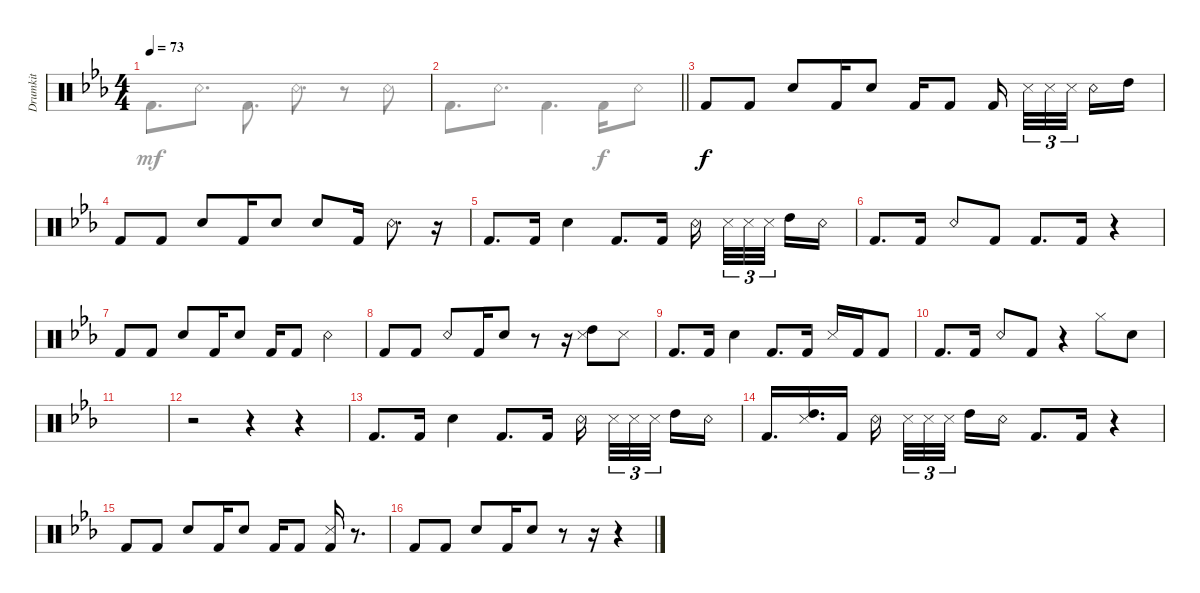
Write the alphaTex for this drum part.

\track ("Drumkit" "Drumkit") {instrument percussion}
\staff {score}
\articulation defaults
\voice
\ts (4 4)
\tempo 73
\clef neutral
\ks cminor
|
\barLineRight lightlight
|
"Kick (hit) 2".8{dy f} "Kick (hit) 2".8 "Snare (hit) 2".8 "Kick (hit) 2".16 "Snare (hit) 2".8 "Kick (hit) 2".16 "Kick (hit) 2".8 "Kick (hit) 2".16 "Snare (side stick) 3".32{tu (3 2)} "Snare (side stick) 3".32{tu (3 2)} "Snare (side stick) 3".32{tu (3 2)} "Snare (rim shot)".16 "High Tom (hit)".16 |
"Kick (hit) 2".8 "Kick (hit) 2".8 "Snare (hit) 2".8 "Kick (hit) 2".16 "Snare (hit) 2".8 "Snare (hit) 2".8 "Kick (hit) 2".16 "Snare (rim shot)".8{d} r.16 |
"Kick (hit) 2".8{d} "Kick (hit) 2".16 "Snare (hit) 2".4 "Kick (hit) 2".8{d} "Kick (hit) 2".16 "Snare (rim shot)".16 "Snare (side stick) 3".32{tu (3 2)} "Snare (side stick) 3".32{tu (3 2)} "Snare (side stick) 3".32{tu (3 2)} "High Tom (hit)".16 "Snare (rim shot)".16 |
"Kick (hit) 2".8{d} "Kick (hit) 2".16 "Snare (rim shot)".8 "Kick (hit) 2".8 "Kick (hit) 2".8{d} "Kick (hit) 2".16 r.4 |
"Kick (hit) 2".8 "Kick (hit) 2".8 "Snare (hit) 2".8 "Kick (hit) 2".16 "Snare (hit) 2".8 "Kick (hit) 2".16 "Kick (hit) 2".8 "Snare (rim shot)".4 |
"Kick (hit) 2".8 "Kick (hit) 2".8 "Snare (rim shot)".8 "Kick (hit) 2".16 "Snare (hit) 2".8 r.8 r.16 ("High Tom (hit)" "Snare (side stick) 3").8 "Snare (side stick) 3".8 |
"Kick (hit) 2".8{d} "Kick (hit) 2".16 "Snare (hit) 2".4 "Kick (hit) 2".8{d} "Kick (hit) 2".16 "Snare (side stick) 3".16 "Kick (hit) 2".16 "Kick (hit) 2".8 |
"Kick (hit) 2".8{d} "Kick (hit) 2".16 "Snare (rim shot)".8 "Kick (hit) 2".8 r.4 "Hi-Hat (closed)".8 "Snare (hit) 2".8 |
|
r.2 r.4 r.4 |
"Kick (hit) 2".8{d} "Kick (hit) 2".16 "Snare (hit) 2".4 "Kick (hit) 2".8{d} "Kick (hit) 2".16 "Snare (rim shot)".16 "Snare (side stick) 3".32{tu (3 2)} "Snare (side stick) 3".32{tu (3 2)} "Snare (side stick) 3".32{tu (3 2)} "High Tom (hit)".16 "Snare (rim shot)".16 |
"Kick (hit) 2".16{d} ("Snare (side stick) 3" "High Tom (hit)").16{d} "Kick (hit) 2".16 "Snare (rim shot)".16 "Snare (side stick) 3".32{tu (3 2)} "Snare (side stick) 3".32{tu (3 2)} "Snare (side stick) 3".32{tu (3 2)} "High Tom (hit)".16 "Snare (rim shot)".16 "Kick (hit) 2".8{d} "Kick (hit) 2".16 r.4 |
"Kick (hit) 2".8 "Kick (hit) 2".8 "Snare (hit) 2".8 "Kick (hit) 2".16 "Snare (hit) 2".8 "Kick (hit) 2".16 "Kick (hit) 2".8 ("Kick (hit) 2" "Snare (side stick) 3").16 r.8{d} |
"Kick (hit) 2".8 "Kick (hit) 2".8 "Snare (hit) 2".8 "Kick (hit) 2".16 "Snare (hit) 2".8 r.8 r.16 r.4
\voice
\clef neutral
\ottava regular
\simile none
\ks cminor "Kick (hit) 2".8{d dy mf} "Snare (rim shot)".8{d} "Kick (hit) 2".8{d} "Snare (rim shot)".8{d}
r.8 "Snare (rim shot)".8 |
\barLineRight lightlight "Kick (hit) 2".8{d} "Snare (rim shot)".8{d} "Kick (hit) 2".4{d} "Kick (hit) 2".16{dy f} "Snare (rim shot)".8
|
|
|
|
|
|
|
|
|
|
|
|
|
|
